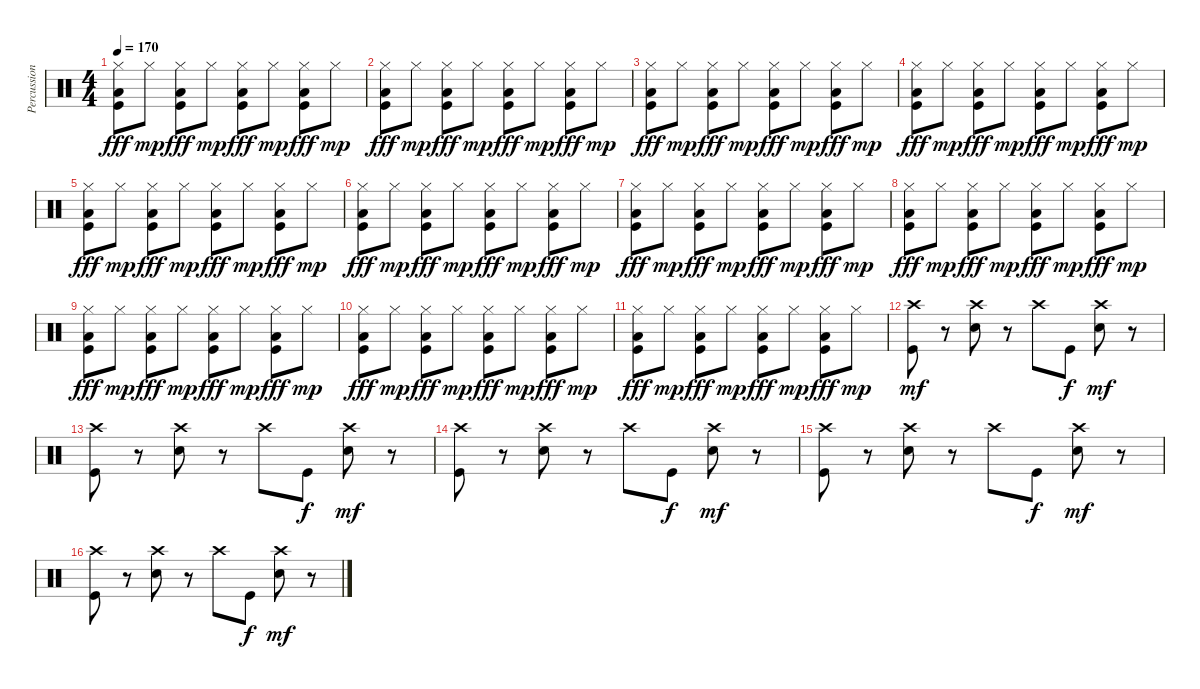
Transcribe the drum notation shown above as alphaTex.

\track ("Percussion" "Percussion") {instrument percussion}
\staff {score}
\articulation defaults
\ts (4 4)
\tempo 170
\clef neutral
\ks c
("Low Floor Tom (hit)" "Hi-Hat (closed)" "Kick (hit)").8{dy fff} "Hi-Hat (closed)".8{dy mp} ("Low Floor Tom (hit)" "Hi-Hat (closed)" "Kick (hit)").8{dy fff} "Hi-Hat (closed)".8{dy mp} ("Low Floor Tom (hit)" "Hi-Hat (closed)" "Kick (hit)").8{dy fff} "Hi-Hat (closed)".8{dy mp} ("Low Floor Tom (hit)" "Hi-Hat (closed)" "Kick (hit)").8{dy fff} "Hi-Hat (closed)".8{dy mp} |
("Low Floor Tom (hit)" "Hi-Hat (closed)" "Kick (hit)").8{dy fff} "Hi-Hat (closed)".8{dy mp} ("Low Floor Tom (hit)" "Hi-Hat (closed)" "Kick (hit)").8{dy fff} "Hi-Hat (closed)".8{dy mp} ("Low Floor Tom (hit)" "Hi-Hat (closed)" "Kick (hit)").8{dy fff} "Hi-Hat (closed)".8{dy mp} ("Low Floor Tom (hit)" "Hi-Hat (closed)" "Kick (hit)").8{dy fff} "Hi-Hat (closed)".8{dy mp} |
("Low Floor Tom (hit)" "Hi-Hat (closed)" "Kick (hit)").8{dy fff} "Hi-Hat (closed)".8{dy mp} ("Low Floor Tom (hit)" "Hi-Hat (closed)" "Kick (hit)").8{dy fff} "Hi-Hat (closed)".8{dy mp} ("Low Floor Tom (hit)" "Hi-Hat (closed)" "Kick (hit)").8{dy fff} "Hi-Hat (closed)".8{dy mp} ("Low Floor Tom (hit)" "Hi-Hat (closed)" "Kick (hit)").8{dy fff} "Hi-Hat (closed)".8{dy mp} |
("Low Floor Tom (hit)" "Hi-Hat (closed)" "Kick (hit)").8{dy fff} "Hi-Hat (closed)".8{dy mp} ("Low Floor Tom (hit)" "Hi-Hat (closed)" "Kick (hit)").8{dy fff} "Hi-Hat (closed)".8{dy mp} ("Low Floor Tom (hit)" "Hi-Hat (closed)" "Kick (hit)").8{dy fff} "Hi-Hat (closed)".8{dy mp} ("Low Floor Tom (hit)" "Hi-Hat (closed)" "Kick (hit)").8{dy fff} "Hi-Hat (closed)".8{dy mp} |
("Low Floor Tom (hit)" "Hi-Hat (closed)" "Kick (hit)").8{dy fff} "Hi-Hat (closed)".8{dy mp} ("Low Floor Tom (hit)" "Hi-Hat (closed)" "Kick (hit)").8{dy fff} "Hi-Hat (closed)".8{dy mp} ("Low Floor Tom (hit)" "Hi-Hat (closed)" "Kick (hit)").8{dy fff} "Hi-Hat (closed)".8{dy mp} ("Low Floor Tom (hit)" "Hi-Hat (closed)" "Kick (hit)").8{dy fff} "Hi-Hat (closed)".8{dy mp} |
("Low Floor Tom (hit)" "Hi-Hat (closed)" "Kick (hit)").8{dy fff} "Hi-Hat (closed)".8{dy mp} ("Low Floor Tom (hit)" "Hi-Hat (closed)" "Kick (hit)").8{dy fff} "Hi-Hat (closed)".8{dy mp} ("Low Floor Tom (hit)" "Hi-Hat (closed)" "Kick (hit)").8{dy fff} "Hi-Hat (closed)".8{dy mp} ("Low Floor Tom (hit)" "Hi-Hat (closed)" "Kick (hit)").8{dy fff} "Hi-Hat (closed)".8{dy mp} |
("Low Floor Tom (hit)" "Hi-Hat (closed)" "Kick (hit)").8{dy fff} "Hi-Hat (closed)".8{dy mp} ("Low Floor Tom (hit)" "Hi-Hat (closed)" "Kick (hit)").8{dy fff} "Hi-Hat (closed)".8{dy mp} ("Low Floor Tom (hit)" "Hi-Hat (closed)" "Kick (hit)").8{dy fff} "Hi-Hat (closed)".8{dy mp} ("Low Floor Tom (hit)" "Hi-Hat (closed)" "Kick (hit)").8{dy fff} "Hi-Hat (closed)".8{dy mp} |
("Low Floor Tom (hit)" "Hi-Hat (closed)" "Kick (hit)").8{dy fff} "Hi-Hat (closed)".8{dy mp} ("Low Floor Tom (hit)" "Hi-Hat (closed)" "Kick (hit)").8{dy fff} "Hi-Hat (closed)".8{dy mp} ("Low Floor Tom (hit)" "Hi-Hat (closed)" "Kick (hit)").8{dy fff} "Hi-Hat (closed)".8{dy mp} ("Low Floor Tom (hit)" "Hi-Hat (closed)" "Kick (hit)").8{dy fff} "Hi-Hat (closed)".8{dy mp} |
("Low Floor Tom (hit)" "Hi-Hat (closed)" "Kick (hit)").8{dy fff} "Hi-Hat (closed)".8{dy mp} ("Low Floor Tom (hit)" "Hi-Hat (closed)" "Kick (hit)").8{dy fff} "Hi-Hat (closed)".8{dy mp} ("Low Floor Tom (hit)" "Hi-Hat (closed)" "Kick (hit)").8{dy fff} "Hi-Hat (closed)".8{dy mp} ("Low Floor Tom (hit)" "Hi-Hat (closed)" "Kick (hit)").8{dy fff} "Hi-Hat (closed)".8{dy mp} |
("Low Floor Tom (hit)" "Hi-Hat (closed)" "Kick (hit)").8{dy fff} "Hi-Hat (closed)".8{dy mp} ("Low Floor Tom (hit)" "Hi-Hat (closed)" "Kick (hit)").8{dy fff} "Hi-Hat (closed)".8{dy mp} ("Low Floor Tom (hit)" "Hi-Hat (closed)" "Kick (hit)").8{dy fff} "Hi-Hat (closed)".8{dy mp} ("Low Floor Tom (hit)" "Hi-Hat (closed)" "Kick (hit)").8{dy fff} "Hi-Hat (closed)".8{dy mp} |
("Low Floor Tom (hit)" "Hi-Hat (closed)" "Kick (hit)").8{dy fff} "Hi-Hat (closed)".8{dy mp} ("Low Floor Tom (hit)" "Hi-Hat (closed)" "Kick (hit)").8{dy fff} "Hi-Hat (closed)".8{dy mp} ("Low Floor Tom (hit)" "Hi-Hat (closed)" "Kick (hit)").8{dy fff} "Hi-Hat (closed)".8{dy mp} ("Low Floor Tom (hit)" "Hi-Hat (closed)" "Kick (hit)").8{dy fff} "Hi-Hat (closed)".8{dy mp} |
("Kick (hit)" "Crash high (hit)").8{dy mf} r.8 ("Snare (hit) 2" "Crash high (hit)").8 r.8 "Crash high (hit)".8 "Kick (hit)".8{dy f} ("Snare (hit) 2" "Crash high (hit)").8{dy mf} r.8 |
("Kick (hit)" "Crash high (hit)").8 r.8 ("Snare (hit) 2" "Crash high (hit)").8 r.8 "Crash high (hit)".8 "Kick (hit)".8{dy f} ("Snare (hit) 2" "Crash high (hit)").8{dy mf} r.8 |
("Kick (hit)" "Crash high (hit)").8 r.8 ("Snare (hit) 2" "Crash high (hit)").8 r.8 "Crash high (hit)".8 "Kick (hit)".8{dy f} ("Snare (hit) 2" "Crash high (hit)").8{dy mf} r.8 |
("Kick (hit)" "Crash high (hit)").8 r.8 ("Snare (hit) 2" "Crash high (hit)").8 r.8 "Crash high (hit)".8 "Kick (hit)".8{dy f} ("Snare (hit) 2" "Crash high (hit)").8{dy mf} r.8 |
("Kick (hit)" "Crash high (hit)").8 r.8 ("Snare (hit) 2" "Crash high (hit)").8 r.8 "Crash high (hit)".8 "Kick (hit)".8{dy f} ("Snare (hit) 2" "Crash high (hit)").8{dy mf} r.8
